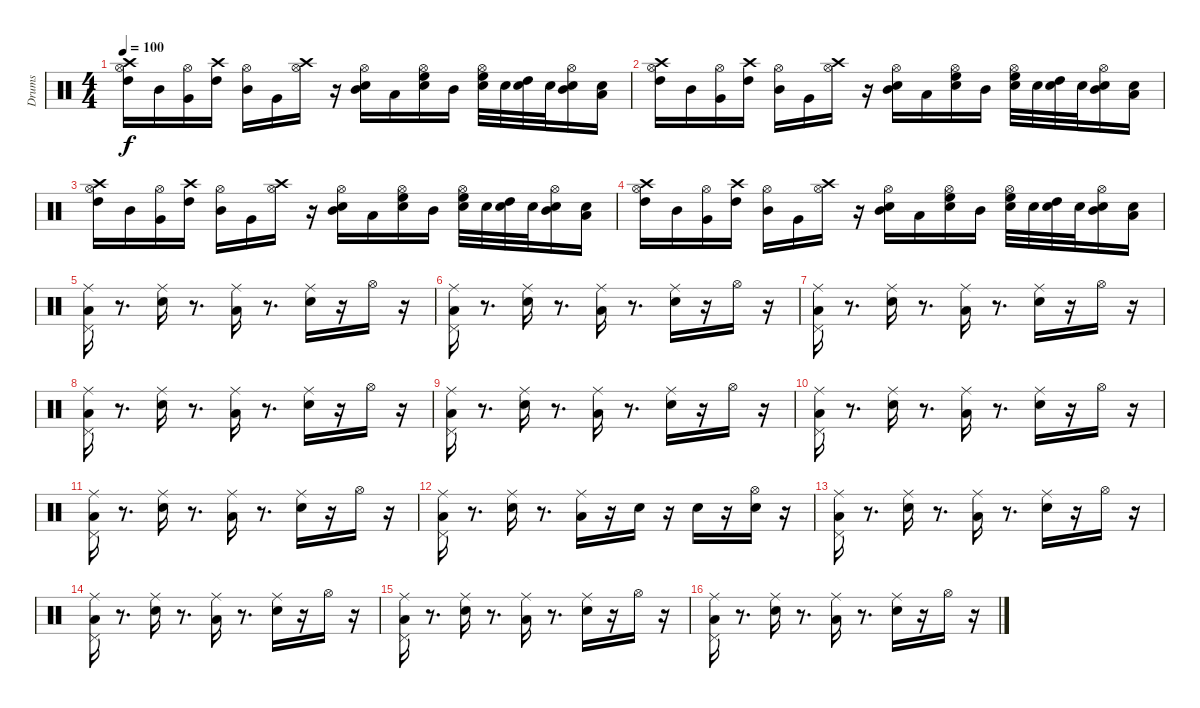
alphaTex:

\track ("Drums" "Drums") {instrument percussion}
\staff {score}
\articulation defaults
\ts (4 4)
\tempo 100
\clef neutral
\ks c
("Hi-Hat (open)" "Crash high (hit)" "High Tom (hit)").16{dy f} "Mid Tom (hit)".16 ("Hi-Hat (open)" "Very Low Tom (hit)").16 ("Crash high (hit)" "High Tom (hit)").16 ("Hi-Hat (open)" "Mid Tom (hit)").16 "Very Low Tom (hit)".16 ("Hi-Hat (open)" "Crash high (hit)").16 r.16 ("Hi-Hat (open)" "Mid Tom (hit)" "Electric Snare (hit)").16 "Low Tom (hit)".16 ("Hi-Hat (open)" "High Floor Tom (hit)" "Electric Snare (hit)").16 "Mid Tom (hit)".16 ("Hi-Hat (open)" "High Floor Tom (hit)" "Electric Snare (hit)").32 "Electric Snare (hit)".32 ("High Tom (hit)" "Electric Snare (hit)").32 "Electric Snare (hit)".32 ("Hi-Hat (open)" "Mid Tom (hit)" "Electric Snare (hit)").16 ("Low Tom (hit)" "Electric Snare (hit)").16 |
("Crash high (hit)" "High Tom (hit)" "Hi-Hat (open)").16 "Mid Tom (hit)".16 ("Hi-Hat (open)" "Very Low Tom (hit)").16 ("High Tom (hit)" "Crash high (hit)").16 ("Hi-Hat (open)" "Mid Tom (hit)").16 "Very Low Tom (hit)".16 ("Hi-Hat (open)" "Crash high (hit)").16 r.16 ("Hi-Hat (open)" "Mid Tom (hit)" "Electric Snare (hit)").16 "Low Tom (hit)".16 ("Hi-Hat (open)" "Electric Snare (hit)" "High Floor Tom (hit)").16 "Mid Tom (hit)".16 ("High Floor Tom (hit)" "Electric Snare (hit)" "Hi-Hat (open)").32 "Electric Snare (hit)".32 ("High Tom (hit)" "Electric Snare (hit)").32 "Electric Snare (hit)".32 ("Hi-Hat (open)" "Mid Tom (hit)" "Electric Snare (hit)").16 ("Low Tom (hit)" "Electric Snare (hit)").16 |
("Hi-Hat (open)" "Crash high (hit)" "High Tom (hit)").16 "Mid Tom (hit)".16 ("Hi-Hat (open)" "Very Low Tom (hit)").16 ("Crash high (hit)" "High Tom (hit)").16 ("Hi-Hat (open)" "Mid Tom (hit)").16 "Very Low Tom (hit)".16 ("Hi-Hat (open)" "Crash high (hit)").16 r.16 ("Hi-Hat (open)" "Mid Tom (hit)" "Electric Snare (hit)").16 "Low Tom (hit)".16 ("Hi-Hat (open)" "High Floor Tom (hit)" "Electric Snare (hit)").16 "Mid Tom (hit)".16 ("Hi-Hat (open)" "High Floor Tom (hit)" "Electric Snare (hit)").32 "Electric Snare (hit)".32 ("High Tom (hit)" "Electric Snare (hit)").32 "Electric Snare (hit)".32 ("Hi-Hat (open)" "Mid Tom (hit)" "Electric Snare (hit)").16 ("Low Tom (hit)" "Electric Snare (hit)").16 |
("Hi-Hat (open)" "Crash high (hit)" "High Tom (hit)").16 "Mid Tom (hit)".16 ("Hi-Hat (open)" "Very Low Tom (hit)").16 ("Crash high (hit)" "High Tom (hit)").16 ("Hi-Hat (open)" "Mid Tom (hit)").16 "Very Low Tom (hit)".16 ("Hi-Hat (open)" "Crash high (hit)").16 r.16 ("Hi-Hat (open)" "Mid Tom (hit)" "Electric Snare (hit)").16 "Low Tom (hit)".16 ("Hi-Hat (open)" "High Floor Tom (hit)" "Electric Snare (hit)").16 "Mid Tom (hit)".16 ("Hi-Hat (open)" "High Floor Tom (hit)" "Electric Snare (hit)").32 "Electric Snare (hit)".32 ("High Tom (hit)" "Electric Snare (hit)").32 "Electric Snare (hit)".32 ("Hi-Hat (open)" "Mid Tom (hit)" "Electric Snare (hit)").16 ("Low Tom (hit)" "Electric Snare (hit)").16 |
("Low Floor Tom (hit)" "Pedal Hi-Hat (hit)" "Ride (middle)").16 r.8{d} ("Electric Snare (hit)" "Ride (middle)").16 r.8{d} ("Low Floor Tom (hit)" "Ride (middle)").16 r.8{d} ("Ride (middle)" "Electric Snare (hit)").16 r.16 "Hi-Hat (open)".16 r.16 |
("Low Floor Tom (hit)" "Pedal Hi-Hat (hit)" "Ride (middle)").16 r.8{d} ("Electric Snare (hit)" "Ride (middle)").16 r.8{d} ("Low Floor Tom (hit)" "Ride (middle)").16 r.8{d} ("Ride (middle)" "Electric Snare (hit)").16 r.16 "Hi-Hat (open)".16 r.16 |
("Low Floor Tom (hit)" "Pedal Hi-Hat (hit)" "Ride (middle)").16 r.8{d} ("Electric Snare (hit)" "Ride (middle)").16 r.8{d} ("Low Floor Tom (hit)" "Ride (middle)").16 r.8{d} ("Ride (middle)" "Electric Snare (hit)").16 r.16 "Hi-Hat (open)".16 r.16 |
("Low Floor Tom (hit)" "Pedal Hi-Hat (hit)" "Ride (middle)").16 r.8{d} ("Electric Snare (hit)" "Ride (middle)").16 r.8{d} ("Low Floor Tom (hit)" "Ride (middle)").16 r.8{d} ("Ride (middle)" "Electric Snare (hit)").16 r.16 "Hi-Hat (open)".16 r.16 |
("Low Floor Tom (hit)" "Pedal Hi-Hat (hit)" "Ride (middle)").16 r.8{d} ("Electric Snare (hit)" "Ride (middle)").16 r.8{d} ("Low Floor Tom (hit)" "Ride (middle)").16 r.8{d} ("Ride (middle)" "Electric Snare (hit)").16 r.16 "Hi-Hat (open)".16 r.16 |
("Low Floor Tom (hit)" "Pedal Hi-Hat (hit)" "Ride (middle)").16 r.8{d} ("Electric Snare (hit)" "Ride (middle)").16 r.8{d} ("Low Floor Tom (hit)" "Ride (middle)").16 r.8{d} ("Ride (middle)" "Electric Snare (hit)").16 r.16 "Hi-Hat (open)".16 r.16 |
("Low Floor Tom (hit)" "Pedal Hi-Hat (hit)" "Ride (middle)").16 r.8{d} ("Electric Snare (hit)" "Ride (middle)").16 r.8{d} ("Low Floor Tom (hit)" "Ride (middle)").16 r.8{d} ("Ride (middle)" "Electric Snare (hit)").16 r.16 "Hi-Hat (open)".16 r.16 |
("Low Floor Tom (hit)" "Pedal Hi-Hat (hit)" "Ride (middle)").16 r.8{d} ("Electric Snare (hit)" "Ride (middle)").16 r.8{d} ("Low Floor Tom (hit)" "Ride (middle)").16 r.16 "Electric Snare (hit)".16 r.16 "Electric Snare (hit)".16 r.16 ("Electric Snare (hit)" "Hi-Hat (open)").16 r.16 |
("Pedal Hi-Hat (hit)" "Ride (middle)" "Low Floor Tom (hit)").16 r.8{d} ("Electric Snare (hit)" "Ride (middle)").16 r.8{d} ("Low Floor Tom (hit)" "Ride (middle)").16 r.8{d} ("Ride (middle)" "Electric Snare (hit)").16 r.16 "Hi-Hat (open)".16 r.16 |
("Low Floor Tom (hit)" "Pedal Hi-Hat (hit)" "Ride (middle)").16 r.8{d} ("Electric Snare (hit)" "Ride (middle)").16 r.8{d} ("Low Floor Tom (hit)" "Ride (middle)").16 r.8{d} ("Ride (middle)" "Electric Snare (hit)").16 r.16 "Hi-Hat (open)".16 r.16 |
("Low Floor Tom (hit)" "Pedal Hi-Hat (hit)" "Ride (middle)").16 r.8{d} ("Electric Snare (hit)" "Ride (middle)").16 r.8{d} ("Low Floor Tom (hit)" "Ride (middle)").16 r.8{d} ("Ride (middle)" "Electric Snare (hit)").16 r.16 "Hi-Hat (open)".16 r.16 |
("Low Floor Tom (hit)" "Pedal Hi-Hat (hit)" "Ride (middle)").16 r.8{d} ("Electric Snare (hit)" "Ride (middle)").16 r.8{d} ("Low Floor Tom (hit)" "Ride (middle)").16 r.8{d} ("Ride (middle)" "Electric Snare (hit)").16 r.16 "Hi-Hat (open)".16 r.16
